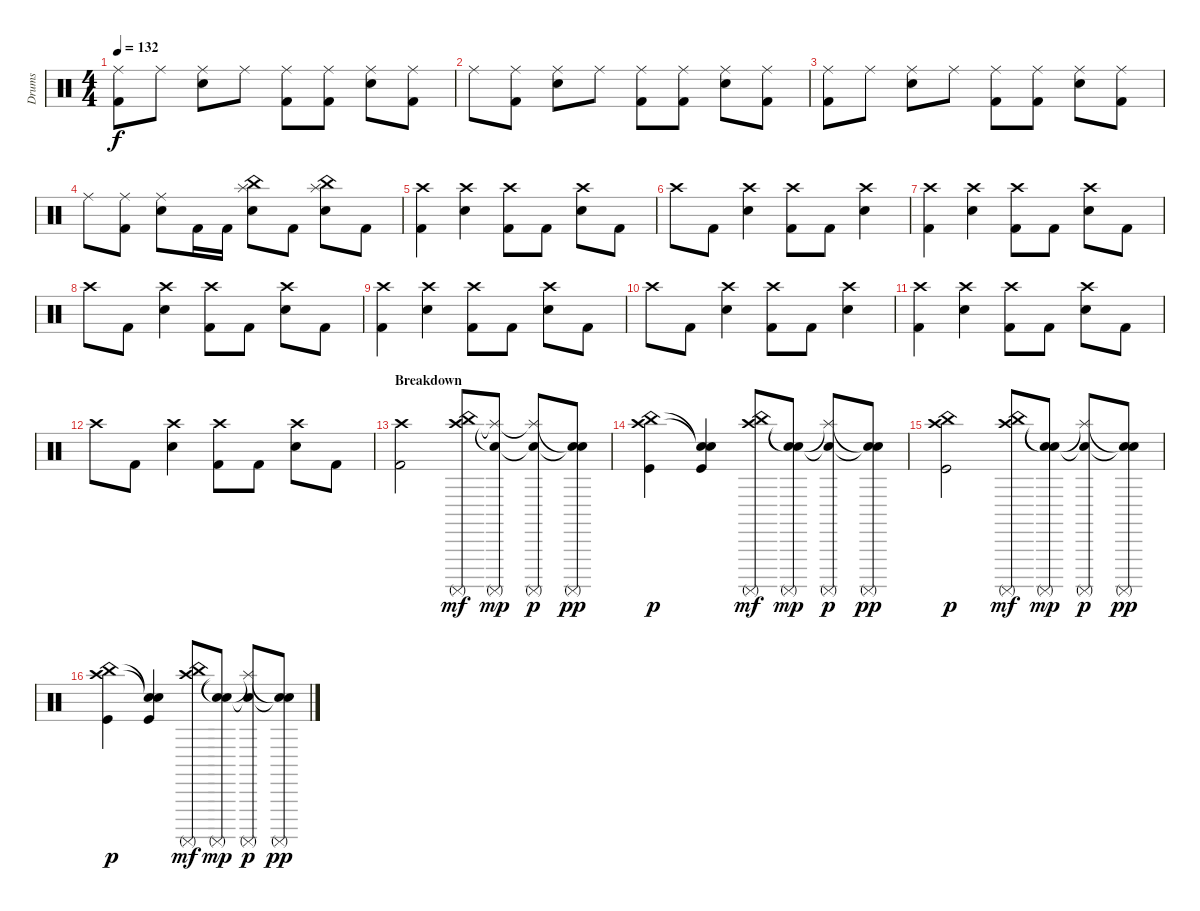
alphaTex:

\track ("Drums" "Drums") {instrument percussion}
\staff {score}
\articulation defaults
\ts (4 4)
\tempo 132
\clef neutral
\ks c
("Ride (middle)" "Kick (hit) 2").8{dy f} "Ride (middle)".8 ("Ride (middle)" "Electric Snare (hit)").8 "Ride (middle)".8 ("Ride (middle)" "Kick (hit) 2").8 ("Ride (middle)" "Kick (hit) 2").8 ("Ride (middle)" "Electric Snare (hit)").8 ("Ride (middle)" "Kick (hit) 2").8 |
"Ride (middle)".8 ("Ride (middle)" "Kick (hit) 2").8 ("Ride (middle)" "Electric Snare (hit)").8 "Ride (middle)".8 ("Ride (middle)" "Kick (hit) 2").8 ("Ride (middle)" "Kick (hit) 2").8 ("Ride (middle)" "Electric Snare (hit)").8 ("Ride (middle)" "Kick (hit) 2").8 |
("Ride (middle)" "Kick (hit) 2").8 "Ride (middle)".8 ("Ride (middle)" "Electric Snare (hit)").8 "Ride (middle)".8 ("Ride (middle)" "Kick (hit) 2").8 ("Ride (middle)" "Kick (hit) 2").8 ("Ride (middle)" "Electric Snare (hit)").8 ("Ride (middle)" "Kick (hit) 2").8 |
"Ride (middle)".8 ("Ride (middle)" "Kick (hit) 2").8 ("Ride (middle)" "Electric Snare (hit)").8 "Kick (hit) 2".16 "Kick (hit) 2".16 ("China (hit)" "Splash (hit)" "Electric Snare (hit)").8 "Kick (hit) 2".8 ("China (hit)" "Splash (hit)" "Electric Snare (hit)").8 "Kick (hit) 2".8 |
("Crash high (hit)" "Kick (hit) 2").4 ("Crash high (hit)" "Electric Snare (hit)").4 ("Crash high (hit)" "Kick (hit) 2").8 "Kick (hit) 2".8 ("Crash high (hit)" "Electric Snare (hit)").8 "Kick (hit) 2".8 |
"Crash high (hit)".8 "Kick (hit) 2".8 ("Crash high (hit)" "Electric Snare (hit)").4 ("Crash high (hit)" "Kick (hit) 2").8 "Kick (hit) 2".8 ("Crash high (hit)" "Electric Snare (hit)").4 |
("Crash high (hit)" "Kick (hit) 2").4 ("Crash high (hit)" "Electric Snare (hit)").4 ("Crash high (hit)" "Kick (hit) 2").8 "Kick (hit) 2".8 ("Crash high (hit)" "Electric Snare (hit)").8 "Kick (hit) 2".8 |
"Crash high (hit)".8 "Kick (hit) 2".8 ("Crash high (hit)" "Electric Snare (hit)").4 ("Crash high (hit)" "Kick (hit) 2").8 "Kick (hit) 2".8 ("Crash high (hit)" "Electric Snare (hit)").8 "Kick (hit) 2".8 |
("Crash high (hit)" "Kick (hit) 2").4 ("Crash high (hit)" "Electric Snare (hit)").4 ("Crash high (hit)" "Kick (hit) 2").8 "Kick (hit) 2".8 ("Crash high (hit)" "Electric Snare (hit)").8 "Kick (hit) 2".8 |
"Crash high (hit)".8 "Kick (hit) 2".8 ("Crash high (hit)" "Electric Snare (hit)").4 ("Crash high (hit)" "Kick (hit) 2").8 "Kick (hit) 2".8 ("Crash high (hit)" "Electric Snare (hit)").4 |
("Crash high (hit)" "Kick (hit) 2").4 ("Crash high (hit)" "Electric Snare (hit)").4 ("Crash high (hit)" "Kick (hit) 2").8 "Kick (hit) 2".8 ("Crash high (hit)" "Electric Snare (hit)").8 "Kick (hit) 2".8 |
"Crash high (hit)".8 "Kick (hit) 2".8 ("Crash high (hit)" "Electric Snare (hit)").4 ("Crash high (hit)" "Kick (hit) 2").8 "Kick (hit) 2".8 ("Crash high (hit)" "Electric Snare (hit)").8 "Kick (hit) 2".8 |
\section ("" "Breakdown")
("Crash high (hit)" "Kick (hit) 2").2 ("China (hit)" "Crash high (hit)" "Surdo (mute)").8{dy mf} ("Snare (hit)"{t} "Splash (hit)"{t} "Surdo (mute)").8{dy mp} ("Snare (hit)"{t} "Splash (hit)"{t} "Surdo (mute)").8{dy p} ("Snare (hit)"{t} "Snare (hit)"{t} "Surdo (mute)").8{dy pp} |
("China (hit)" "Crash high (hit)" "Kick (hit)").4{dy p} ("Snare (hit)"{t} "Snare (hit)"{t} "Kick (hit)").4 ("China (hit)" "Crash high (hit)" "Surdo (mute)").8{dy mf} ("Snare (hit)"{t} "Snare (hit)"{t} "Surdo (mute)").8{dy mp} ("Snare (hit)"{t} "Splash (hit)"{t} "Surdo (mute)").8{dy p} ("Snare (hit)"{t} "Snare (hit)"{t} "Surdo (mute)").8{dy pp} |
("China (hit)" "Crash high (hit)" "Kick (hit)").2{dy p} ("China (hit)" "Crash high (hit)" "Surdo (mute)").8{dy mf} ("Snare (hit)"{t} "Snare (hit)"{t} "Surdo (mute)").8{dy mp} ("Snare (hit)"{t} "Splash (hit)"{t} "Surdo (mute)").8{dy p} ("Snare (hit)"{t} "Snare (hit)"{t} "Surdo (mute)").8{dy pp} |
("China (hit)" "Crash high (hit)" "Kick (hit)").4{dy p} ("Snare (hit)"{t} "Snare (hit)"{t} "Kick (hit)").4 ("China (hit)" "Crash high (hit)" "Surdo (mute)").8{dy mf} ("Snare (hit)"{t} "Snare (hit)"{t} "Surdo (mute)").8{dy mp} ("Snare (hit)"{t} "Splash (hit)"{t} "Surdo (mute)").8{dy p} ("Snare (hit)"{t} "Snare (hit)"{t} "Surdo (mute)").8{dy pp}
